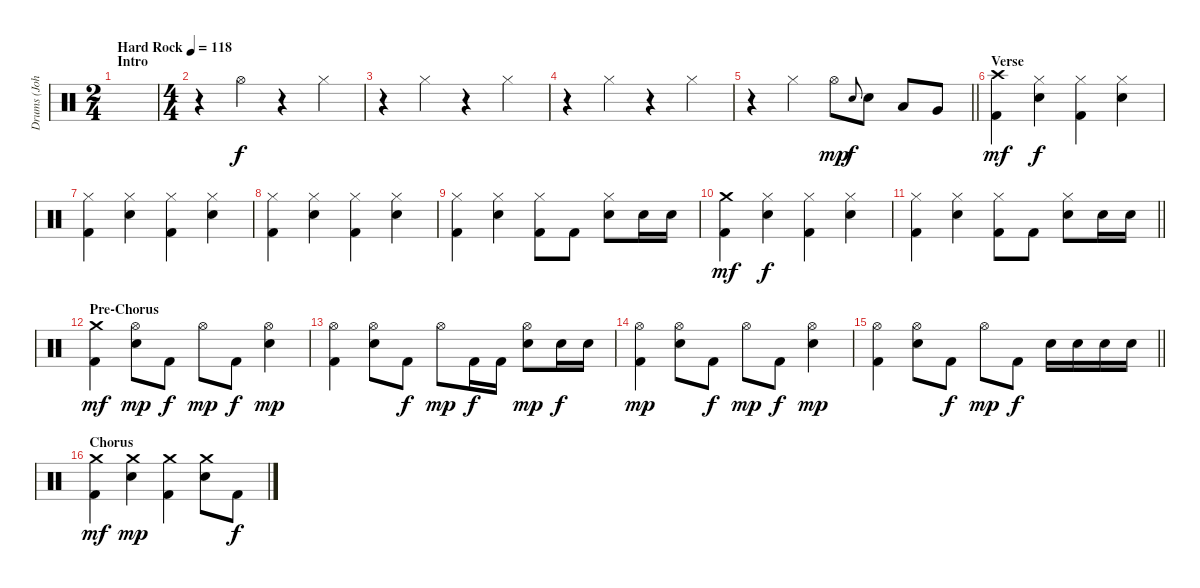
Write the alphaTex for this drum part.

\track ("Drums (John Fred Young)" "Drums (Joh") {instrument percussion}
\staff {score}
\articulation defaults
\ts (2 4)
\section ("" "Intro")
\tempo (118 "Hard Rock")
\clef neutral
\ks c
|
\ts (4 4)
r.4 "Hi-Hat (open)".4 r.4 "Hi-Hat (closed)".4{dy f} |
r.4 "Hi-Hat (closed)".4 r.4 "Hi-Hat (closed)".4 |
r.4 "Hi-Hat (closed)".4 r.4 "Hi-Hat (closed)".4 |
\barLineRight lightlight
r.4 "Hi-Hat (closed)".4 "Hi-Hat (open)".8{dy mp} "Electric Snare (hit)".8{gr onbeat dy f} "Electric Snare (hit)".8 "Low Tom (hit)".8 "Very Low Tom (hit)".8 |
\section ("" "Verse")
("Crash high (hit)" "Kick (hit) 2").4{dy mf} ("Hi-Hat (closed)" "Electric Snare (hit)").4{dy f} ("Hi-Hat (closed)" "Kick (hit) 2").4 ("Hi-Hat (closed)" "Electric Snare (hit)").4 |
("Hi-Hat (closed)" "Kick (hit) 2").4 ("Hi-Hat (closed)" "Electric Snare (hit)").4 ("Hi-Hat (closed)" "Kick (hit) 2").4 ("Hi-Hat (closed)" "Electric Snare (hit)").4 |
("Hi-Hat (closed)" "Kick (hit) 2").4 ("Hi-Hat (closed)" "Electric Snare (hit)").4 ("Hi-Hat (closed)" "Kick (hit) 2").4 ("Hi-Hat (closed)" "Electric Snare (hit)").4 |
("Hi-Hat (closed)" "Kick (hit) 2").4 ("Hi-Hat (closed)" "Electric Snare (hit)").4 ("Hi-Hat (closed)" "Kick (hit) 2").8 "Kick (hit) 2".8 ("Hi-Hat (closed)" "Electric Snare (hit)").8 "Electric Snare (hit)".16 "Electric Snare (hit)".16 |
("Crash medium (hit)" "Kick (hit) 2").4{dy mf} ("Hi-Hat (closed)" "Electric Snare (hit)").4{dy f} ("Hi-Hat (closed)" "Kick (hit) 2").4 ("Hi-Hat (closed)" "Electric Snare (hit)").4 |
\barLineRight lightlight
("Hi-Hat (closed)" "Kick (hit) 2").4 ("Hi-Hat (closed)" "Electric Snare (hit)").4 ("Hi-Hat (closed)" "Kick (hit) 2").8 "Kick (hit) 2".8 ("Hi-Hat (closed)" "Electric Snare (hit)").8 "Electric Snare (hit)".16 "Electric Snare (hit)".16 |
\section ("" "Pre-Chorus")
("Crash medium (hit)" "Kick (hit) 2").4{dy mf} ("Hi-Hat (open)" "Electric Snare (hit)").8{dy mp} "Kick (hit) 2".8{dy f} "Hi-Hat (open)".8{dy mp} "Kick (hit) 2".8{dy f} ("Hi-Hat (open)" "Electric Snare (hit)").4{dy mp} |
("Hi-Hat (open)" "Kick (hit) 2").4 ("Hi-Hat (open)" "Electric Snare (hit)").8 "Kick (hit) 2".8{dy f} "Hi-Hat (open)".8{dy mp} "Kick (hit) 2".16{dy f} "Kick (hit) 2".16 ("Hi-Hat (open)" "Electric Snare (hit)").8{dy mp} "Electric Snare (hit)".16{dy f} "Electric Snare (hit)".16 |
("Hi-Hat (open)" "Kick (hit) 2").4{dy mp} ("Hi-Hat (open)" "Electric Snare (hit)").8 "Kick (hit) 2".8{dy f} "Hi-Hat (open)".8{dy mp} "Kick (hit) 2".8{dy f} ("Hi-Hat (open)" "Electric Snare (hit)").4{dy mp} |
\barLineRight lightlight
("Hi-Hat (open)" "Kick (hit) 2").4 ("Hi-Hat (open)" "Electric Snare (hit)").8 "Kick (hit) 2".8{dy f} "Hi-Hat (open)".8{dy mp} "Kick (hit) 2".8{dy f} "Electric Snare (hit)".16 "Electric Snare (hit)".16 "Electric Snare (hit)".16 "Electric Snare (hit)".16 |
\section ("" "Chorus")
("Crash medium (hit)" "Kick (hit) 2").4{dy mf} ("Crash medium (hit)" "Electric Snare (hit)").4{dy mp} ("Crash medium (hit)" "Kick (hit) 2").4 ("Crash medium (hit)" "Electric Snare (hit)").8 "Kick (hit) 2".8{dy f}
